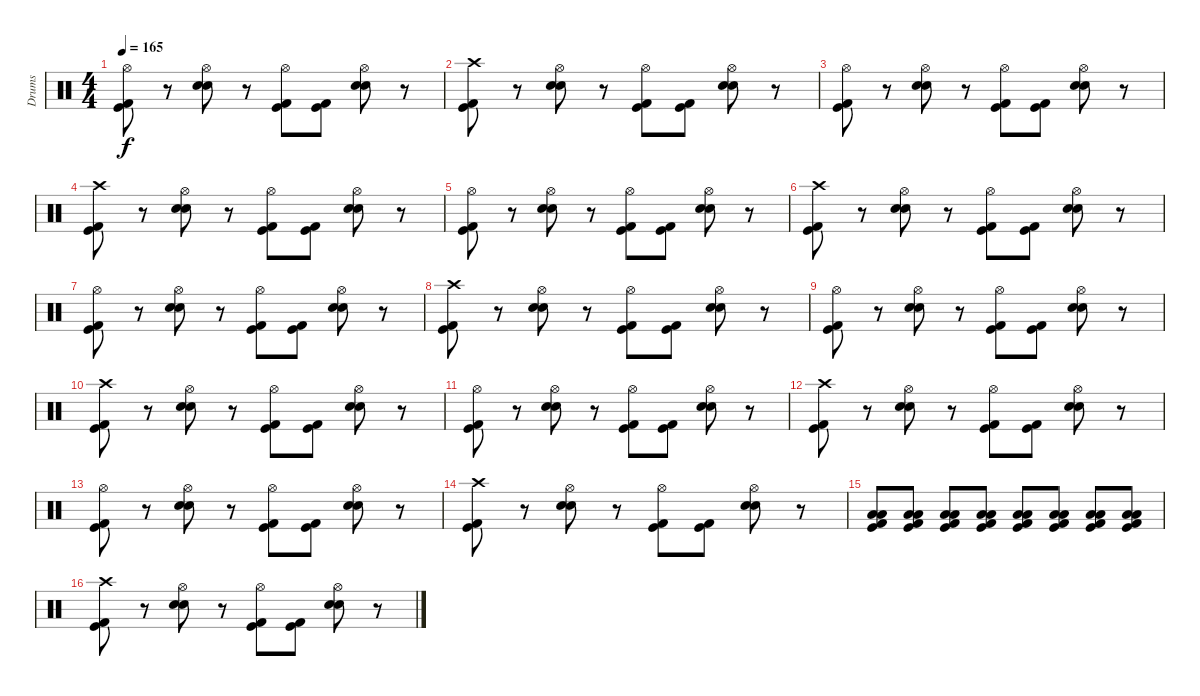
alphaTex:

\track ("Drums" "Drums") {instrument percussion}
\staff {score}
\articulation defaults
\ts (4 4)
\tempo 165
\clef neutral
\ks c
("Hi-Hat (open)" "Kick (hit) 2" "Kick (hit)").8{dy f} r.8 ("Hi-Hat (open)" "Electric Snare (hit)" "Snare (hit) 2").8 r.8 ("Hi-Hat (open)" "Kick (hit) 2" "Kick (hit)").8 ("Kick (hit) 2" "Kick (hit)").8 ("Hi-Hat (open)" "Electric Snare (hit)" "Snare (hit) 2").8 r.8 |
("Crash high (hit)" "Kick (hit) 2" "Kick (hit)").8 r.8 ("Hi-Hat (open)" "Electric Snare (hit)" "Snare (hit) 2").8 r.8 ("Hi-Hat (open)" "Kick (hit) 2" "Kick (hit)").8 ("Kick (hit) 2" "Kick (hit)").8 ("Hi-Hat (open)" "Electric Snare (hit)" "Snare (hit) 2").8 r.8 |
("Hi-Hat (open)" "Kick (hit) 2" "Kick (hit)").8 r.8 ("Hi-Hat (open)" "Electric Snare (hit)" "Snare (hit) 2").8 r.8 ("Hi-Hat (open)" "Kick (hit) 2" "Kick (hit)").8 ("Kick (hit) 2" "Kick (hit)").8 ("Hi-Hat (open)" "Electric Snare (hit)" "Snare (hit) 2").8 r.8 |
("Crash high (hit)" "Kick (hit) 2" "Kick (hit)").8 r.8 ("Hi-Hat (open)" "Electric Snare (hit)" "Snare (hit) 2").8 r.8 ("Hi-Hat (open)" "Kick (hit) 2" "Kick (hit)").8 ("Kick (hit) 2" "Kick (hit)").8 ("Hi-Hat (open)" "Electric Snare (hit)" "Snare (hit) 2").8 r.8 |
("Hi-Hat (open)" "Kick (hit) 2" "Kick (hit)").8 r.8 ("Hi-Hat (open)" "Electric Snare (hit)" "Snare (hit) 2").8 r.8 ("Hi-Hat (open)" "Kick (hit) 2" "Kick (hit)").8 ("Kick (hit) 2" "Kick (hit)").8 ("Hi-Hat (open)" "Electric Snare (hit)" "Snare (hit) 2").8 r.8 |
("Crash high (hit)" "Kick (hit) 2" "Kick (hit)").8 r.8 ("Hi-Hat (open)" "Electric Snare (hit)" "Snare (hit) 2").8 r.8 ("Hi-Hat (open)" "Kick (hit) 2" "Kick (hit)").8 ("Kick (hit) 2" "Kick (hit)").8 ("Hi-Hat (open)" "Electric Snare (hit)" "Snare (hit) 2").8 r.8 |
("Hi-Hat (open)" "Kick (hit) 2" "Kick (hit)").8 r.8 ("Hi-Hat (open)" "Electric Snare (hit)" "Snare (hit) 2").8 r.8 ("Hi-Hat (open)" "Kick (hit) 2" "Kick (hit)").8 ("Kick (hit) 2" "Kick (hit)").8 ("Hi-Hat (open)" "Electric Snare (hit)" "Snare (hit) 2").8 r.8 |
("Crash high (hit)" "Kick (hit) 2" "Kick (hit)").8 r.8 ("Hi-Hat (open)" "Electric Snare (hit)" "Snare (hit) 2").8 r.8 ("Hi-Hat (open)" "Kick (hit) 2" "Kick (hit)").8 ("Kick (hit) 2" "Kick (hit)").8 ("Hi-Hat (open)" "Electric Snare (hit)" "Snare (hit) 2").8 r.8 |
("Hi-Hat (open)" "Kick (hit) 2" "Kick (hit)").8 r.8 ("Hi-Hat (open)" "Electric Snare (hit)" "Snare (hit) 2").8 r.8 ("Hi-Hat (open)" "Kick (hit) 2" "Kick (hit)").8 ("Kick (hit) 2" "Kick (hit)").8 ("Hi-Hat (open)" "Electric Snare (hit)" "Snare (hit) 2").8 r.8 |
("Crash high (hit)" "Kick (hit) 2" "Kick (hit)").8 r.8 ("Hi-Hat (open)" "Electric Snare (hit)" "Snare (hit) 2").8 r.8 ("Hi-Hat (open)" "Kick (hit) 2" "Kick (hit)").8 ("Kick (hit) 2" "Kick (hit)").8 ("Hi-Hat (open)" "Electric Snare (hit)" "Snare (hit) 2").8 r.8 |
("Hi-Hat (open)" "Kick (hit) 2" "Kick (hit)").8 r.8 ("Hi-Hat (open)" "Electric Snare (hit)" "Snare (hit) 2").8 r.8 ("Hi-Hat (open)" "Kick (hit) 2" "Kick (hit)").8 ("Kick (hit) 2" "Kick (hit)").8 ("Hi-Hat (open)" "Electric Snare (hit)" "Snare (hit) 2").8 r.8 |
("Crash high (hit)" "Kick (hit) 2" "Kick (hit)").8 r.8 ("Hi-Hat (open)" "Electric Snare (hit)" "Snare (hit) 2").8 r.8 ("Hi-Hat (open)" "Kick (hit) 2" "Kick (hit)").8 ("Kick (hit) 2" "Kick (hit)").8 ("Hi-Hat (open)" "Electric Snare (hit)" "Snare (hit) 2").8 r.8 |
("Hi-Hat (open)" "Kick (hit) 2" "Kick (hit)").8 r.8 ("Hi-Hat (open)" "Electric Snare (hit)" "Snare (hit) 2").8 r.8 ("Hi-Hat (open)" "Kick (hit) 2" "Kick (hit)").8 ("Kick (hit) 2" "Kick (hit)").8 ("Hi-Hat (open)" "Electric Snare (hit)" "Snare (hit) 2").8 r.8 |
("Crash high (hit)" "Kick (hit) 2" "Kick (hit)").8 r.8 ("Hi-Hat (open)" "Electric Snare (hit)" "Snare (hit) 2").8 r.8 ("Hi-Hat (open)" "Kick (hit) 2" "Kick (hit)").8 ("Kick (hit) 2" "Kick (hit)").8 ("Hi-Hat (open)" "Electric Snare (hit)" "Snare (hit) 2").8 r.8 |
("Kick (hit) 2" "Kick (hit)" "Low Floor Tom (hit)" "Low Tom (hit)").8 ("Kick (hit) 2" "Kick (hit)" "Low Floor Tom (hit)" "Low Tom (hit)").8 ("Kick (hit) 2" "Kick (hit)" "Low Floor Tom (hit)" "Low Tom (hit)").8 ("Kick (hit) 2" "Kick (hit)" "Low Floor Tom (hit)" "Low Tom (hit)").8 ("Kick (hit) 2" "Kick (hit)" "Low Floor Tom (hit)" "Low Tom (hit)").8 ("Kick (hit) 2" "Kick (hit)" "Low Floor Tom (hit)" "Low Tom (hit)").8 ("Kick (hit) 2" "Kick (hit)" "Low Floor Tom (hit)" "Low Tom (hit)").8 ("Kick (hit) 2" "Kick (hit)" "Low Floor Tom (hit)" "Low Tom (hit)").8 |
("Crash high (hit)" "Kick (hit) 2" "Kick (hit)").8 r.8 ("Hi-Hat (open)" "Electric Snare (hit)" "Snare (hit) 2").8 r.8 ("Hi-Hat (open)" "Kick (hit) 2" "Kick (hit)").8 ("Kick (hit) 2" "Kick (hit)").8 ("Hi-Hat (open)" "Electric Snare (hit)" "Snare (hit) 2").8 r.8
